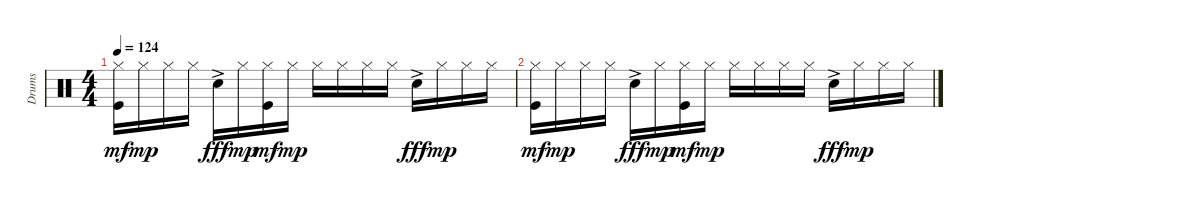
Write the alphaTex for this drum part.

\track ("Drums" "Drums") {instrument percussion}
\staff {score}
\articulation defaults
\ts (4 4)
\tempo 124
\clef neutral
\ks c
("Hi-Hat (closed)" "Kick (hit)").16{dy mf} "Hi-Hat (closed)".16{dy mp} "Hi-Hat (closed)".16 "Hi-Hat (closed)".16 "Snare (hit) 2"{ac}.16{dy fff} "Hi-Hat (closed)".16{dy mp} ("Hi-Hat (closed)" "Kick (hit)").16{dy mf} "Hi-Hat (closed)".16{dy mp} "Hi-Hat (closed)".16 "Hi-Hat (closed)".16 "Hi-Hat (closed)".16 "Hi-Hat (closed)".16 "Snare (hit) 2"{ac}.16{dy fff} "Hi-Hat (closed)".16{dy mp} "Hi-Hat (closed)".16 "Hi-Hat (closed)".16 |
("Hi-Hat (closed)" "Kick (hit)").16{dy mf} "Hi-Hat (closed)".16{dy mp} "Hi-Hat (closed)".16 "Hi-Hat (closed)".16 "Snare (hit) 2"{ac}.16{dy fff} "Hi-Hat (closed)".16{dy mp} ("Hi-Hat (closed)" "Kick (hit)").16{dy mf} "Hi-Hat (closed)".16{dy mp} "Hi-Hat (closed)".16 "Hi-Hat (closed)".16 "Hi-Hat (closed)".16 "Hi-Hat (closed)".16 "Snare (hit) 2"{ac}.16{dy fff} "Hi-Hat (closed)".16{dy mp} "Hi-Hat (closed)".16 "Hi-Hat (closed)".16
